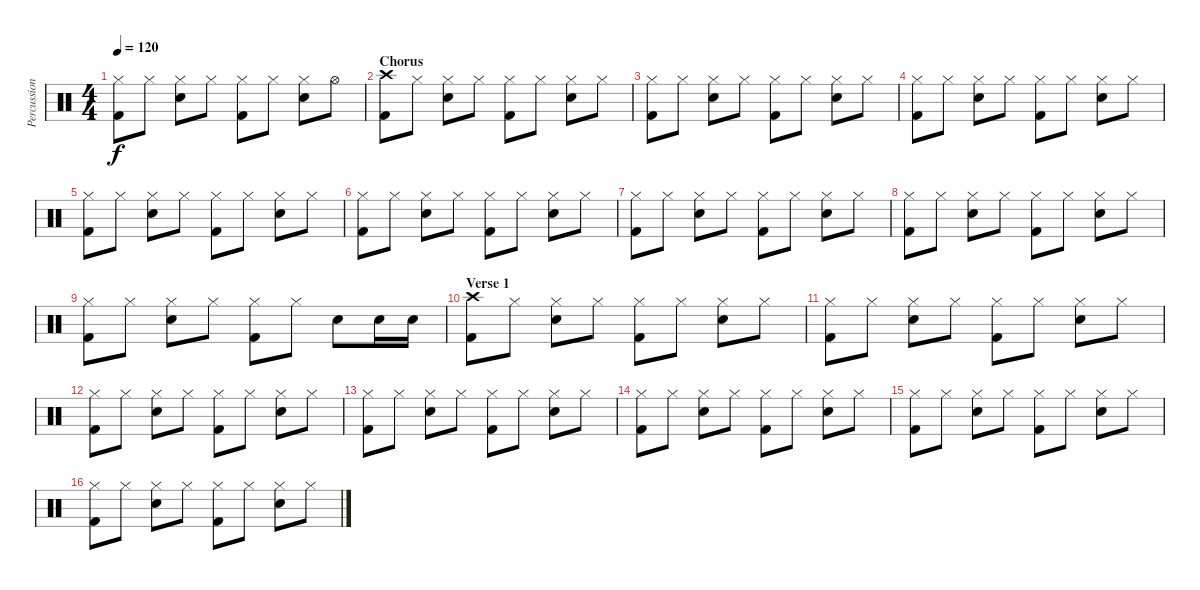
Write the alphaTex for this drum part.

\track ("Percussion" "Percussion") {instrument percussion}
\staff {score}
\articulation defaults
\ts (4 4)
\tempo 120
\clef neutral
\ks c
("Hi-Hat (closed)" "Kick (hit) 2").8{dy f} "Hi-Hat (closed)".8 ("Hi-Hat (closed)" "Electric Snare (hit)").8 "Hi-Hat (closed)".8 ("Hi-Hat (closed)" "Kick (hit) 2").8 "Hi-Hat (closed)".8 ("Hi-Hat (closed)" "Electric Snare (hit)").8 "Hi-Hat (open)".8 |
\section ("" "Chorus")
("Crash high (hit)" "Kick (hit) 2").8 "Hi-Hat (closed)".8 ("Hi-Hat (closed)" "Electric Snare (hit)").8 "Hi-Hat (closed)".8 ("Hi-Hat (closed)" "Kick (hit) 2").8 "Hi-Hat (closed)".8 ("Hi-Hat (closed)" "Electric Snare (hit)").8 "Hi-Hat (closed)".8 |
("Hi-Hat (closed)" "Kick (hit) 2").8 "Hi-Hat (closed)".8 ("Hi-Hat (closed)" "Electric Snare (hit)").8 "Hi-Hat (closed)".8 ("Hi-Hat (closed)" "Kick (hit) 2").8 "Hi-Hat (closed)".8 ("Hi-Hat (closed)" "Electric Snare (hit)").8 "Hi-Hat (closed)".8 |
("Hi-Hat (closed)" "Kick (hit) 2").8 "Hi-Hat (closed)".8 ("Hi-Hat (closed)" "Electric Snare (hit)").8 "Hi-Hat (closed)".8 ("Hi-Hat (closed)" "Kick (hit) 2").8 "Hi-Hat (closed)".8 ("Hi-Hat (closed)" "Electric Snare (hit)").8 "Hi-Hat (closed)".8 |
("Hi-Hat (closed)" "Kick (hit) 2").8 "Hi-Hat (closed)".8 ("Hi-Hat (closed)" "Electric Snare (hit)").8 "Hi-Hat (closed)".8 ("Hi-Hat (closed)" "Kick (hit) 2").8 "Hi-Hat (closed)".8 ("Hi-Hat (closed)" "Electric Snare (hit)").8 "Hi-Hat (closed)".8 |
("Hi-Hat (closed)" "Kick (hit) 2").8 "Hi-Hat (closed)".8 ("Hi-Hat (closed)" "Electric Snare (hit)").8 "Hi-Hat (closed)".8 ("Hi-Hat (closed)" "Kick (hit) 2").8 "Hi-Hat (closed)".8 ("Hi-Hat (closed)" "Electric Snare (hit)").8 "Hi-Hat (closed)".8 |
("Hi-Hat (closed)" "Kick (hit) 2").8 "Hi-Hat (closed)".8 ("Hi-Hat (closed)" "Electric Snare (hit)").8 "Hi-Hat (closed)".8 ("Hi-Hat (closed)" "Kick (hit) 2").8 "Hi-Hat (closed)".8 ("Hi-Hat (closed)" "Electric Snare (hit)").8 "Hi-Hat (closed)".8 |
("Hi-Hat (closed)" "Kick (hit) 2").8 "Hi-Hat (closed)".8 ("Hi-Hat (closed)" "Electric Snare (hit)").8 "Hi-Hat (closed)".8 ("Hi-Hat (closed)" "Kick (hit) 2").8 "Hi-Hat (closed)".8 ("Hi-Hat (closed)" "Electric Snare (hit)").8 "Hi-Hat (closed)".8 |
("Hi-Hat (closed)" "Kick (hit) 2").8 "Hi-Hat (closed)".8 ("Hi-Hat (closed)" "Electric Snare (hit)").8 "Hi-Hat (closed)".8 ("Hi-Hat (closed)" "Kick (hit) 2").8 "Hi-Hat (closed)".8 "Electric Snare (hit)".8 "Electric Snare (hit)".16 "Electric Snare (hit)".16 |
\section ("" "Verse 1")
("Crash high (hit)" "Kick (hit) 2").8 "Hi-Hat (closed)".8 ("Hi-Hat (closed)" "Electric Snare (hit)").8 "Hi-Hat (closed)".8 ("Hi-Hat (closed)" "Kick (hit) 2").8 "Hi-Hat (closed)".8 ("Hi-Hat (closed)" "Electric Snare (hit)").8 "Hi-Hat (closed)".8 |
("Hi-Hat (closed)" "Kick (hit) 2").8 "Hi-Hat (closed)".8 ("Hi-Hat (closed)" "Electric Snare (hit)").8 "Hi-Hat (closed)".8 ("Hi-Hat (closed)" "Kick (hit) 2").8 "Hi-Hat (closed)".8 ("Hi-Hat (closed)" "Electric Snare (hit)").8 "Hi-Hat (closed)".8 |
("Hi-Hat (closed)" "Kick (hit) 2").8 "Hi-Hat (closed)".8 ("Hi-Hat (closed)" "Electric Snare (hit)").8 "Hi-Hat (closed)".8 ("Hi-Hat (closed)" "Kick (hit) 2").8 "Hi-Hat (closed)".8 ("Hi-Hat (closed)" "Electric Snare (hit)").8 "Hi-Hat (closed)".8 |
("Hi-Hat (closed)" "Kick (hit) 2").8 "Hi-Hat (closed)".8 ("Hi-Hat (closed)" "Electric Snare (hit)").8 "Hi-Hat (closed)".8 ("Hi-Hat (closed)" "Kick (hit) 2").8 "Hi-Hat (closed)".8 ("Hi-Hat (closed)" "Electric Snare (hit)").8 "Hi-Hat (closed)".8 |
("Hi-Hat (closed)" "Kick (hit) 2").8 "Hi-Hat (closed)".8 ("Hi-Hat (closed)" "Electric Snare (hit)").8 "Hi-Hat (closed)".8 ("Hi-Hat (closed)" "Kick (hit) 2").8 "Hi-Hat (closed)".8 ("Hi-Hat (closed)" "Electric Snare (hit)").8 "Hi-Hat (closed)".8 |
("Hi-Hat (closed)" "Kick (hit) 2").8 "Hi-Hat (closed)".8 ("Hi-Hat (closed)" "Electric Snare (hit)").8 "Hi-Hat (closed)".8 ("Hi-Hat (closed)" "Kick (hit) 2").8 "Hi-Hat (closed)".8 ("Hi-Hat (closed)" "Electric Snare (hit)").8 "Hi-Hat (closed)".8 |
("Hi-Hat (closed)" "Kick (hit) 2").8 "Hi-Hat (closed)".8 ("Hi-Hat (closed)" "Electric Snare (hit)").8 "Hi-Hat (closed)".8 ("Hi-Hat (closed)" "Kick (hit) 2").8 "Hi-Hat (closed)".8 ("Hi-Hat (closed)" "Electric Snare (hit)").8 "Hi-Hat (closed)".8
